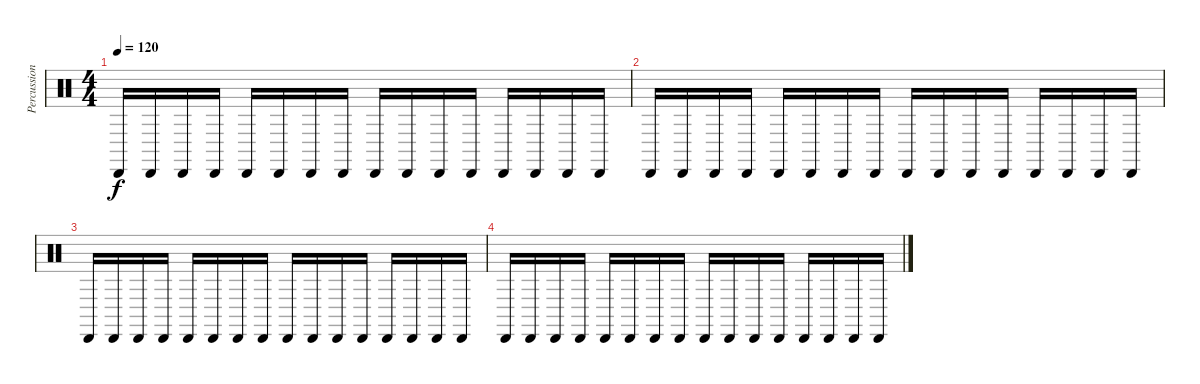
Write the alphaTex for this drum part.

\track ("Percussion" "Percussion") {instrument percussion}
\staff {score}
\articulation defaults
\ts (4 4)
\tempo 120
\clef neutral
\ks c "Cabasa (hit)".16{dy f} "Cabasa (hit)".16 "Cabasa (hit)".16 "Cabasa (hit)".16 "Cabasa (hit)".16 "Cabasa (hit)".16 "Cabasa (hit)".16 "Cabasa (hit)".16 "Cabasa (hit)".16 "Cabasa (hit)".16 "Cabasa (hit)".16 "Cabasa (hit)".16 "Cabasa (hit)".16 "Cabasa (hit)".16 "Cabasa (hit)".16 "Cabasa (hit)".16
|
"Cabasa (hit)".16 "Cabasa (hit)".16 "Cabasa (hit)".16 "Cabasa (hit)".16 "Cabasa (hit)".16 "Cabasa (hit)".16 "Cabasa (hit)".16 "Cabasa (hit)".16 "Cabasa (hit)".16 "Cabasa (hit)".16 "Cabasa (hit)".16 "Cabasa (hit)".16 "Cabasa (hit)".16 "Cabasa (hit)".16 "Cabasa (hit)".16 "Cabasa (hit)".16 |
"Cabasa (hit)".16 "Cabasa (hit)".16 "Cabasa (hit)".16 "Cabasa (hit)".16 "Cabasa (hit)".16 "Cabasa (hit)".16 "Cabasa (hit)".16 "Cabasa (hit)".16 "Cabasa (hit)".16 "Cabasa (hit)".16 "Cabasa (hit)".16 "Cabasa (hit)".16 "Cabasa (hit)".16 "Cabasa (hit)".16 "Cabasa (hit)".16 "Cabasa (hit)".16 |
"Cabasa (hit)".16 "Cabasa (hit)".16 "Cabasa (hit)".16 "Cabasa (hit)".16 "Cabasa (hit)".16 "Cabasa (hit)".16 "Cabasa (hit)".16 "Cabasa (hit)".16 "Cabasa (hit)".16 "Cabasa (hit)".16 "Cabasa (hit)".16 "Cabasa (hit)".16 "Cabasa (hit)".16 "Cabasa (hit)".16 "Cabasa (hit)".16 "Cabasa (hit)".16
